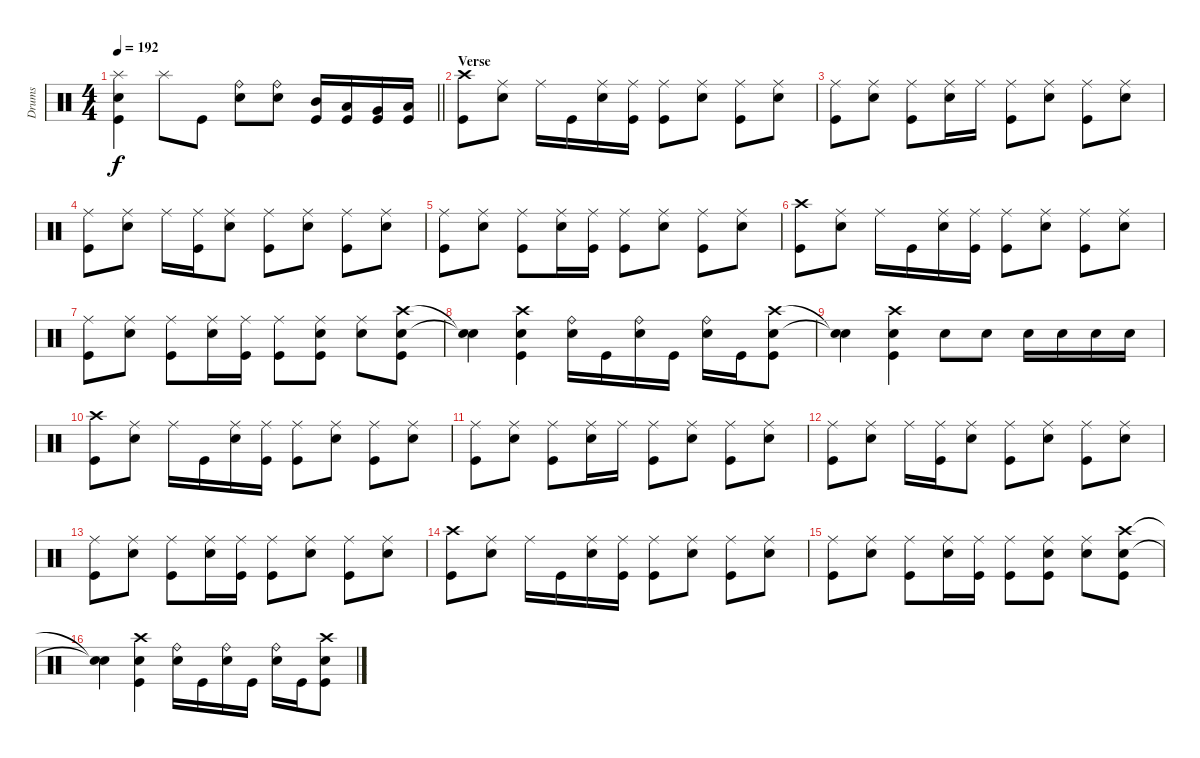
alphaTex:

\track ("Drums" "Drums") {instrument percussion}
\staff
\articulation defaults
\ts (4 4)
\tempo 192
\clef neutral
\barLineRight lightlight
\ks c
("Splash (hit)" "Electric Snare (hit)" "Kick (hit)").4{dy f} "Splash (hit)".8 "Kick (hit)".8 ("Ride (bell)" "Electric Snare (hit)").8 ("Ride (bell)" "Electric Snare (hit)").8 ("Mid Tom (hit)" "Kick (hit)").16 ("Low Tom (hit)" "Kick (hit)").16 ("Very Low Tom (hit)" "Kick (hit)").16 ("Low Floor Tom (hit)" "Kick (hit)").16 |
\section ("" "Verse")
("Crash high (hit)" "Kick (hit)").8 ("Ride (middle)" "Electric Snare (hit)").8 "Ride (middle)".16 "Kick (hit)".16 ("Ride (middle)" "Electric Snare (hit)").16 ("Ride (middle)" "Kick (hit)").16 ("Ride (middle)" "Kick (hit)").8 ("Ride (middle)" "Electric Snare (hit)").8 ("Ride (middle)" "Kick (hit)").8 ("Ride (middle)" "Electric Snare (hit)").8 |
("Ride (middle)" "Kick (hit)").8 ("Ride (middle)" "Electric Snare (hit)").8 ("Ride (middle)" "Kick (hit)").8 ("Ride (middle)" "Electric Snare (hit)").16 "Ride (middle)".16 ("Ride (middle)" "Kick (hit)").8 ("Ride (middle)" "Electric Snare (hit)").8 ("Ride (middle)" "Kick (hit)").8 ("Ride (middle)" "Electric Snare (hit)").8 |
("Ride (middle)" "Kick (hit)").8 ("Ride (middle)" "Electric Snare (hit)").8 "Ride (middle)".16 ("Ride (middle)" "Kick (hit)").16 ("Ride (middle)" "Electric Snare (hit)").8 ("Ride (middle)" "Kick (hit)").8 ("Ride (middle)" "Electric Snare (hit)").8 ("Ride (middle)" "Kick (hit)").8 ("Ride (middle)" "Electric Snare (hit)").8 |
("Ride (middle)" "Kick (hit)").8 ("Ride (middle)" "Electric Snare (hit)").8 ("Ride (middle)" "Kick (hit)").8 ("Ride (middle)" "Electric Snare (hit)").16 ("Ride (middle)" "Kick (hit)").16 ("Ride (middle)" "Kick (hit)").8 ("Ride (middle)" "Electric Snare (hit)").8 ("Ride (middle)" "Kick (hit)").8 ("Ride (middle)" "Electric Snare (hit)").8 |
("Crash high (hit)" "Kick (hit)").8 ("Ride (middle)" "Electric Snare (hit)").8 "Ride (middle)".16 "Kick (hit)".16 ("Ride (middle)" "Electric Snare (hit)").16 ("Ride (middle)" "Kick (hit)").16 ("Ride (middle)" "Kick (hit)").8 ("Ride (middle)" "Electric Snare (hit)").8 ("Ride (middle)" "Kick (hit)").8 ("Ride (middle)" "Electric Snare (hit)").8 |
("Ride (middle)" "Kick (hit)").8 ("Ride (middle)" "Electric Snare (hit)").8 ("Ride (middle)" "Kick (hit)").8 ("Ride (middle)" "Electric Snare (hit)").16 ("Ride (middle)" "Kick (hit)").16 ("Ride (middle)" "Kick (hit)").8 ("Ride (middle)" "Electric Snare (hit)" "Kick (hit)").8 ("Ride (middle)" "Electric Snare (hit)").8 ("Crash high (hit)" "Electric Snare (hit)" "Kick (hit)").8 |
("Snare (hit)"{t} "Snare (hit)"{t}).4 ("Crash high (hit)" "Electric Snare (hit)" "Kick (hit)").4 ("Ride (bell)" "Electric Snare (hit)").16 "Kick (hit)".16 ("Ride (bell)" "Electric Snare (hit)").16 "Kick (hit)".16 ("Ride (bell)" "Electric Snare (hit)").16 "Kick (hit)".16 ("Crash high (hit)" "Electric Snare (hit)" "Kick (hit)").8 |
("Snare (hit)"{t} "Snare (hit)"{t}).4 ("Crash high (hit)" "Electric Snare (hit)" "Kick (hit)").4 "Electric Snare (hit)".8 "Electric Snare (hit)".8 "Electric Snare (hit)".16 "Electric Snare (hit)".16 "Electric Snare (hit)".16 "Electric Snare (hit)".16 |
("Crash high (hit)" "Kick (hit)").8 ("Ride (middle)" "Electric Snare (hit)").8 "Ride (middle)".16 "Kick (hit)".16 ("Ride (middle)" "Electric Snare (hit)").16 ("Ride (middle)" "Kick (hit)").16 ("Ride (middle)" "Kick (hit)").8 ("Ride (middle)" "Electric Snare (hit)").8 ("Ride (middle)" "Kick (hit)").8 ("Ride (middle)" "Electric Snare (hit)").8 |
("Ride (middle)" "Kick (hit)").8 ("Ride (middle)" "Electric Snare (hit)").8 ("Ride (middle)" "Kick (hit)").8 ("Ride (middle)" "Electric Snare (hit)").16 "Ride (middle)".16 ("Ride (middle)" "Kick (hit)").8 ("Ride (middle)" "Electric Snare (hit)").8 ("Ride (middle)" "Kick (hit)").8 ("Ride (middle)" "Electric Snare (hit)").8 |
("Ride (middle)" "Kick (hit)").8 ("Ride (middle)" "Electric Snare (hit)").8 "Ride (middle)".16 ("Ride (middle)" "Kick (hit)").16 ("Ride (middle)" "Electric Snare (hit)").8 ("Ride (middle)" "Kick (hit)").8 ("Ride (middle)" "Electric Snare (hit)").8 ("Ride (middle)" "Kick (hit)").8 ("Ride (middle)" "Electric Snare (hit)").8 |
("Ride (middle)" "Kick (hit)").8 ("Ride (middle)" "Electric Snare (hit)").8 ("Ride (middle)" "Kick (hit)").8 ("Ride (middle)" "Electric Snare (hit)").16 ("Ride (middle)" "Kick (hit)").16 ("Ride (middle)" "Kick (hit)").8 ("Ride (middle)" "Electric Snare (hit)").8 ("Ride (middle)" "Kick (hit)").8 ("Ride (middle)" "Electric Snare (hit)").8 |
("Crash high (hit)" "Kick (hit)").8 ("Ride (middle)" "Electric Snare (hit)").8 "Ride (middle)".16 "Kick (hit)".16 ("Ride (middle)" "Electric Snare (hit)").16 ("Ride (middle)" "Kick (hit)").16 ("Ride (middle)" "Kick (hit)").8 ("Ride (middle)" "Electric Snare (hit)").8 ("Ride (middle)" "Kick (hit)").8 ("Ride (middle)" "Electric Snare (hit)").8 |
("Ride (middle)" "Kick (hit)").8 ("Ride (middle)" "Electric Snare (hit)").8 ("Ride (middle)" "Kick (hit)").8 ("Ride (middle)" "Electric Snare (hit)").16 ("Ride (middle)" "Kick (hit)").16 ("Ride (middle)" "Kick (hit)").8 ("Ride (middle)" "Electric Snare (hit)" "Kick (hit)").8 ("Ride (middle)" "Electric Snare (hit)").8 ("Crash high (hit)" "Electric Snare (hit)" "Kick (hit)").8 |
("Snare (hit)"{t} "Snare (hit)"{t}).4 ("Crash high (hit)" "Electric Snare (hit)" "Kick (hit)").4 ("Ride (bell)" "Electric Snare (hit)").16 "Kick (hit)".16 ("Ride (bell)" "Electric Snare (hit)").16 "Kick (hit)".16 ("Ride (bell)" "Electric Snare (hit)").16 "Kick (hit)".16 ("Crash high (hit)" "Electric Snare (hit)" "Kick (hit)").8
